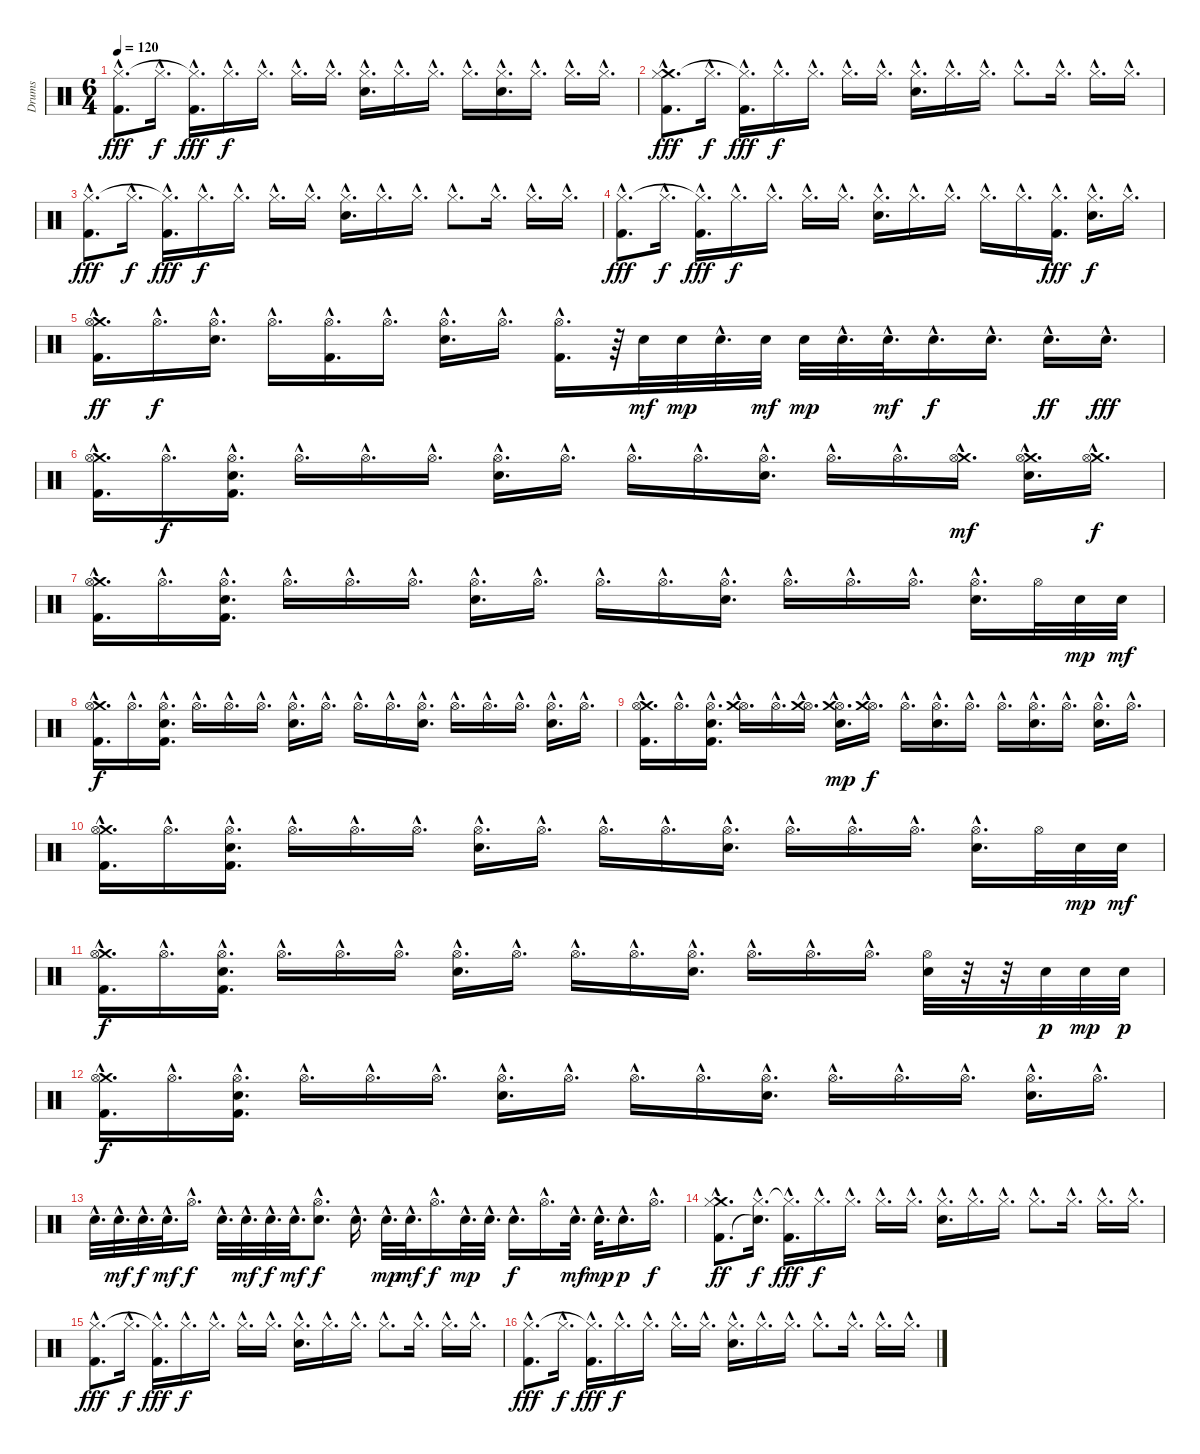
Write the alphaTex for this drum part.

\track ("Drums" "Drums") {instrument percussion}
\staff {score}
\articulation defaults
\ts (6 4)
\tempo 120
\clef neutral
\ks c
("Kick (hit) 2"{hac} "Hi-Hat (closed)"{hac}).8{d dy fff} "Hi-Hat (closed)"{hac}.16{d dy f} ("Kick (hit) 2"{hac} "Hi-Hat (closed)"{hac t}).16{d dy fff} "Hi-Hat (closed)"{hac}.16{d dy f} "Hi-Hat (closed)"{hac}.16{d} "Hi-Hat (closed)"{hac}.16{d} "Hi-Hat (closed)"{hac}.16{d} ("Electric Snare (hit)"{hac} "Hi-Hat (closed)"{hac}).16{d} "Hi-Hat (closed)"{hac}.16{d} "Hi-Hat (closed)"{hac}.16{d} "Hi-Hat (closed)"{hac}.16{d} ("Electric Snare (hit)"{hac} "Hi-Hat (closed)"{hac}).16{d} "Hi-Hat (closed)"{hac}.16{d} "Hi-Hat (closed)"{hac}.16{d} "Hi-Hat (closed)"{hac}.16{d} |
("Kick (hit) 2"{hac} "Crash medium (hit)"{hac} "Hi-Hat (closed)"{hac}).8{d dy fff} "Hi-Hat (closed)"{hac}.16{d dy f} ("Kick (hit) 2"{hac} "Hi-Hat (closed)"{hac t}).16{d dy fff} "Hi-Hat (closed)"{hac}.16{d dy f} "Hi-Hat (closed)"{hac}.16{d} "Hi-Hat (closed)"{hac}.16{d} "Hi-Hat (closed)"{hac}.16{d} ("Electric Snare (hit)"{hac} "Hi-Hat (closed)"{hac}).16{d} "Hi-Hat (closed)"{hac}.16{d} "Hi-Hat (closed)"{hac}.16{d} "Hi-Hat (closed)"{hac}.8{d} "Hi-Hat (closed)"{hac}.16{d} "Hi-Hat (closed)"{hac}.16{d} "Hi-Hat (closed)"{hac}.16{d} |
("Kick (hit) 2"{hac} "Hi-Hat (closed)"{hac}).8{d dy fff} "Hi-Hat (closed)"{hac}.16{d dy f} ("Kick (hit) 2"{hac} "Hi-Hat (closed)"{hac t}).16{d dy fff} "Hi-Hat (closed)"{hac}.16{d dy f} "Hi-Hat (closed)"{hac}.16{d} "Hi-Hat (closed)"{hac}.16{d} "Hi-Hat (closed)"{hac}.16{d} ("Electric Snare (hit)"{hac} "Hi-Hat (closed)"{hac}).16{d} "Hi-Hat (closed)"{hac}.16{d} "Hi-Hat (closed)"{hac}.16{d} "Hi-Hat (closed)"{hac}.8{d} "Hi-Hat (closed)"{hac}.16{d} "Hi-Hat (closed)"{hac}.16{d} "Hi-Hat (closed)"{hac}.16{d} |
("Kick (hit) 2"{hac} "Hi-Hat (closed)"{hac}).8{d dy fff} "Hi-Hat (closed)"{hac}.16{d dy f} ("Kick (hit) 2"{hac} "Hi-Hat (closed)"{hac t}).16{d dy fff} "Hi-Hat (closed)"{hac}.16{d dy f} "Hi-Hat (closed)"{hac}.16{d} "Hi-Hat (closed)"{hac}.16{d} "Hi-Hat (closed)"{hac}.16{d} ("Electric Snare (hit)"{hac} "Hi-Hat (closed)"{hac}).16{d} "Hi-Hat (closed)"{hac}.16{d} "Hi-Hat (closed)"{hac}.16{d} "Hi-Hat (closed)"{hac}.16{d} "Hi-Hat (closed)"{hac}.16{d} ("Hi-Hat (closed)"{hac} "Kick (hit) 2"{hac}).16{d dy fff} ("Electric Snare (hit)"{hac} "Hi-Hat (closed)"{hac}).16{d dy f} "Hi-Hat (closed)"{hac}.16{d} |
("Kick (hit) 2"{hac} "Crash medium (hit)"{hac} "Hi-Hat (open)"{hac}).16{d dy ff} "Hi-Hat (open)"{hac}.16{d dy f} ("Hi-Hat (open)"{hac} "Electric Snare (hit)"{hac}).16{d} "Hi-Hat (open)"{hac}.16{d} ("Kick (hit) 2"{hac} "Hi-Hat (open)"{hac}).16{d} "Hi-Hat (open)"{hac}.16{d} ("Hi-Hat (open)"{hac} "Electric Snare (hit)"{hac}).16{d} "Hi-Hat (open)"{hac}.16{d} ("Kick (hit) 2"{hac} "Hi-Hat (open)"{hac}).16{d} r.64 "Electric Snare (hit)".32{dy mf} "Electric Snare (hit)".32{dy mp} "Electric Snare (hit)"{hac}.32{d} "Electric Snare (hit)".32{dy mf} "Electric Snare (hit)".32{dy mp} "Electric Snare (hit)"{hac}.32{d} "Electric Snare (hit)"{hac}.32{d dy mf} "Electric Snare (hit)"{hac}.16{d dy f} "Electric Snare (hit)"{hac}.16{d} "Electric Snare (hit)"{hac}.16{d dy ff} "Electric Snare (hit)"{hac}.16{d dy fff} |
("Crash medium (hit)"{hac} "Hi-Hat (open)"{hac} "Kick (hit) 2"{hac}).16{d} "Hi-Hat (open)"{hac}.16{d dy f} ("Electric Snare (hit)"{hac} "Hi-Hat (open)"{hac} "Kick (hit) 2"{hac}).16{d} "Hi-Hat (open)"{hac}.16{d} "Hi-Hat (open)"{hac}.16{d} "Hi-Hat (open)"{hac}.16{d} ("Electric Snare (hit)"{hac} "Hi-Hat (open)"{hac}).16{d} "Hi-Hat (open)"{hac}.16{d} "Hi-Hat (open)"{hac}.16{d} "Hi-Hat (open)"{hac}.16{d} ("Electric Snare (hit)"{hac} "Hi-Hat (open)"{hac}).16{d} "Hi-Hat (open)"{hac}.16{d} "Hi-Hat (open)"{hac}.16{d} ("Crash medium (hit)"{hac} "Hi-Hat (open)"{hac}).16{d dy mf} ("Electric Snare (hit)"{hac} "Crash medium (hit)"{hac} "Hi-Hat (open)"{hac}).16{d} ("Crash medium (hit)"{hac} "Hi-Hat (open)"{hac}).16{d dy f} |
("Crash medium (hit)"{hac} "Hi-Hat (open)"{hac} "Kick (hit) 2"{hac}).16{d} "Hi-Hat (open)"{hac}.16{d} ("Electric Snare (hit)"{hac} "Hi-Hat (open)"{hac} "Kick (hit) 2"{hac}).16{d} "Hi-Hat (open)"{hac}.16{d} "Hi-Hat (open)"{hac}.16{d} "Hi-Hat (open)"{hac}.16{d} ("Electric Snare (hit)"{hac} "Hi-Hat (open)"{hac}).16{d} "Hi-Hat (open)"{hac}.16{d} "Hi-Hat (open)"{hac}.16{d} "Hi-Hat (open)"{hac}.16{d} ("Electric Snare (hit)"{hac} "Hi-Hat (open)"{hac}).16{d} "Hi-Hat (open)"{hac}.16{d} "Hi-Hat (open)"{hac}.16{d} "Hi-Hat (open)"{hac}.16{d} ("Electric Snare (hit)"{hac} "Hi-Hat (open)"{hac}).16{d} "Hi-Hat (open)".32 "Electric Snare (hit)".32{dy mp} "Electric Snare (hit)".32{dy mf} |
("Crash medium (hit)"{hac} "Hi-Hat (open)"{hac} "Kick (hit) 2"{hac}).16{d dy f} "Hi-Hat (open)"{hac}.16{d} ("Electric Snare (hit)"{hac} "Hi-Hat (open)"{hac} "Kick (hit) 2"{hac}).16{d} "Hi-Hat (open)"{hac}.16{d} "Hi-Hat (open)"{hac}.16{d} "Hi-Hat (open)"{hac}.16{d} ("Electric Snare (hit)"{hac} "Hi-Hat (open)"{hac}).16{d} "Hi-Hat (open)"{hac}.16{d} "Hi-Hat (open)"{hac}.16{d} "Hi-Hat (open)"{hac}.16{d} ("Electric Snare (hit)"{hac} "Hi-Hat (open)"{hac}).16{d} "Hi-Hat (open)"{hac}.16{d} "Hi-Hat (open)"{hac}.16{d} "Hi-Hat (open)"{hac}.16{d} ("Electric Snare (hit)"{hac} "Hi-Hat (open)"{hac}).16{d} "Hi-Hat (open)"{hac}.16{d} |
("Crash medium (hit)"{hac} "Hi-Hat (open)"{hac} "Kick (hit) 2"{hac}).16{d} "Hi-Hat (open)"{hac}.16{d} ("Electric Snare (hit)"{hac} "Hi-Hat (open)"{hac} "Kick (hit) 2"{hac}).16{d} ("Hi-Hat (open)"{hac} "Crash medium (hit)"{hac}).16{d} "Hi-Hat (open)"{hac}.16{d} ("Hi-Hat (open)"{hac} "Crash medium (hit)"{hac}).16{d} ("Electric Snare (hit)"{hac} "Hi-Hat (open)"{hac} "Crash medium (hit)"{hac}).16{d dy mp} ("Hi-Hat (open)"{hac} "Crash medium (hit)"{hac}).16{d dy f} "Hi-Hat (open)"{hac}.16{d} ("Electric Snare (hit)"{hac} "Hi-Hat (open)"{hac}).16{d} "Hi-Hat (open)"{hac}.16{d} "Hi-Hat (open)"{hac}.16{d} ("Electric Snare (hit)"{hac} "Hi-Hat (open)"{hac}).16{d} "Hi-Hat (open)"{hac}.16{d} ("Electric Snare (hit)"{hac} "Hi-Hat (open)"{hac}).16{d} "Hi-Hat (open)"{hac}.16{d} |
("Crash medium (hit)"{hac} "Hi-Hat (open)"{hac} "Kick (hit) 2"{hac}).16{d} "Hi-Hat (open)"{hac}.16{d} ("Electric Snare (hit)"{hac} "Hi-Hat (open)"{hac} "Kick (hit) 2"{hac}).16{d} "Hi-Hat (open)"{hac}.16{d} "Hi-Hat (open)"{hac}.16{d} "Hi-Hat (open)"{hac}.16{d} ("Electric Snare (hit)"{hac} "Hi-Hat (open)"{hac}).16{d} "Hi-Hat (open)"{hac}.16{d} "Hi-Hat (open)"{hac}.16{d} "Hi-Hat (open)"{hac}.16{d} ("Electric Snare (hit)"{hac} "Hi-Hat (open)"{hac}).16{d} "Hi-Hat (open)"{hac}.16{d} "Hi-Hat (open)"{hac}.16{d} "Hi-Hat (open)"{hac}.16{d} ("Electric Snare (hit)"{hac} "Hi-Hat (open)"{hac}).16{d} "Hi-Hat (open)".32 "Electric Snare (hit)".32{dy mp} "Electric Snare (hit)".32{dy mf} |
("Crash medium (hit)"{hac} "Hi-Hat (open)"{hac} "Kick (hit) 2"{hac}).16{d dy f} "Hi-Hat (open)"{hac}.16{d} ("Electric Snare (hit)"{hac} "Hi-Hat (open)"{hac} "Kick (hit) 2"{hac}).16{d} "Hi-Hat (open)"{hac}.16{d} "Hi-Hat (open)"{hac}.16{d} "Hi-Hat (open)"{hac}.16{d} ("Electric Snare (hit)"{hac} "Hi-Hat (open)"{hac}).16{d} "Hi-Hat (open)"{hac}.16{d} "Hi-Hat (open)"{hac}.16{d} "Hi-Hat (open)"{hac}.16{d} ("Electric Snare (hit)"{hac} "Hi-Hat (open)"{hac}).16{d} "Hi-Hat (open)"{hac}.16{d} "Hi-Hat (open)"{hac}.16{d} "Hi-Hat (open)"{hac}.16{d} ("Electric Snare (hit)" "Hi-Hat (open)").32 r.32 r.32 "Electric Snare (hit)".32{dy p} "Electric Snare (hit)".32{dy mp} "Electric Snare (hit)".32{dy p} |
("Crash medium (hit)"{hac} "Hi-Hat (open)"{hac} "Kick (hit) 2"{hac}).16{d dy f} "Hi-Hat (open)"{hac}.16{d} ("Electric Snare (hit)"{hac} "Hi-Hat (open)"{hac} "Kick (hit) 2"{hac}).16{d} "Hi-Hat (open)"{hac}.16{d} "Hi-Hat (open)"{hac}.16{d} "Hi-Hat (open)"{hac}.16{d} ("Electric Snare (hit)"{hac} "Hi-Hat (open)"{hac}).16{d} "Hi-Hat (open)"{hac}.16{d} "Hi-Hat (open)"{hac}.16{d} "Hi-Hat (open)"{hac}.16{d} ("Electric Snare (hit)"{hac} "Hi-Hat (open)"{hac}).16{d} "Hi-Hat (open)"{hac}.16{d} "Hi-Hat (open)"{hac}.16{d} "Hi-Hat (open)"{hac}.16{d} ("Electric Snare (hit)"{hac} "Hi-Hat (open)"{hac}).16{d} "Hi-Hat (open)"{hac}.16{d} |
"Electric Snare (hit)"{hac}.32{d} "Electric Snare (hit)"{hac}.32{d dy mf} "Electric Snare (hit)"{hac}.32{d dy f} "Electric Snare (hit)"{hac}.32{d dy mf} "Hi-Hat (open)"{hac}.16{d dy f} "Electric Snare (hit)"{hac}.32{d} "Electric Snare (hit)"{hac}.32{d dy mf} "Electric Snare (hit)"{hac}.32{d dy f} "Electric Snare (hit)"{hac}.32{d dy mf} ("Electric Snare (hit)"{hac} "Hi-Hat (open)"{hac}).8{d dy f} "Electric Snare (hit)"{hac}.16{d} "Electric Snare (hit)"{hac}.32{d dy mp} "Electric Snare (hit)"{hac}.32{d dy mf} "Hi-Hat (open)"{hac}.16{d dy f} "Electric Snare (hit)"{hac}.32{d dy mp} "Electric Snare (hit)"{hac}.32{d} "Electric Snare (hit)"{hac}.16{d dy f} "Hi-Hat (open)"{hac}.16{d} "Electric Snare (hit)"{hac}.32{d dy mf} "Electric Snare (hit)"{hac}.32{d dy mp} "Electric Snare (hit)"{hac}.16{d dy p} "Hi-Hat (open)"{hac}.16{d dy f} |
("Kick (hit) 2"{hac} "Crash medium (hit)"{hac} "Hi-Hat (closed)"{hac}).8{d dy ff} ("Snare (hit)"{hac t} "Hi-Hat (closed)"{hac}).16{d dy f} ("Kick (hit) 2"{hac} "Hi-Hat (closed)"{hac t}).16{d dy fff} "Hi-Hat (closed)"{hac}.16{d dy f} "Hi-Hat (closed)"{hac}.16{d} "Hi-Hat (closed)"{hac}.16{d} "Hi-Hat (closed)"{hac}.16{d} ("Electric Snare (hit)"{hac} "Hi-Hat (closed)"{hac}).16{d} "Hi-Hat (closed)"{hac}.16{d} "Hi-Hat (closed)"{hac}.16{d} "Hi-Hat (closed)"{hac}.8{d} "Hi-Hat (closed)"{hac}.16{d} "Hi-Hat (closed)"{hac}.16{d} "Hi-Hat (closed)"{hac}.16{d} |
("Kick (hit) 2"{hac} "Hi-Hat (closed)"{hac}).8{d dy fff} "Hi-Hat (closed)"{hac}.16{d dy f} ("Kick (hit) 2"{hac} "Hi-Hat (closed)"{hac t}).16{d dy fff} "Hi-Hat (closed)"{hac}.16{d dy f} "Hi-Hat (closed)"{hac}.16{d} "Hi-Hat (closed)"{hac}.16{d} "Hi-Hat (closed)"{hac}.16{d} ("Electric Snare (hit)"{hac} "Hi-Hat (closed)"{hac}).16{d} "Hi-Hat (closed)"{hac}.16{d} "Hi-Hat (closed)"{hac}.16{d} "Hi-Hat (closed)"{hac}.8{d} "Hi-Hat (closed)"{hac}.16{d} "Hi-Hat (closed)"{hac}.16{d} "Hi-Hat (closed)"{hac}.16{d} |
("Kick (hit) 2"{hac} "Hi-Hat (closed)"{hac}).8{d dy fff} "Hi-Hat (closed)"{hac}.16{d dy f} ("Kick (hit) 2"{hac} "Hi-Hat (closed)"{hac t}).16{d dy fff} "Hi-Hat (closed)"{hac}.16{d dy f} "Hi-Hat (closed)"{hac}.16{d} "Hi-Hat (closed)"{hac}.16{d} "Hi-Hat (closed)"{hac}.16{d} ("Electric Snare (hit)"{hac} "Hi-Hat (closed)"{hac}).16{d} "Hi-Hat (closed)"{hac}.16{d} "Hi-Hat (closed)"{hac}.16{d} "Hi-Hat (closed)"{hac}.8{d} "Hi-Hat (closed)"{hac}.16{d} "Hi-Hat (closed)"{hac}.16{d} "Hi-Hat (closed)"{hac}.16{d}
